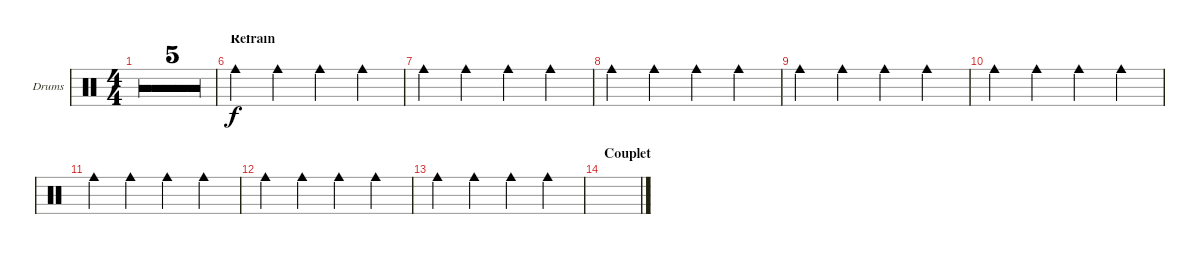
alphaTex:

\defaultSystemsLayout 4
\bracketExtendMode groupsimilarinstruments
\firstSystemTrackNameOrientation horizontal
\otherSystemsTrackNameOrientation horizontal
\track ("Cow Bell" "Drums") {multiBarRest instrument percussion}
\staff {score}
\articulation defaults
\ts (4 4)
\tempo 120
\clef neutral
\ks c
|
|
|
|
|
\section ("" "Refrain")
"Cowbell medium (hit)".4 "Cowbell medium (hit)".4 "Cowbell medium (hit)".4 "Cowbell medium (hit)".4 |
"Cowbell medium (hit)".4 "Cowbell medium (hit)".4 "Cowbell medium (hit)".4 "Cowbell medium (hit)".4 |
"Cowbell medium (hit)".4 "Cowbell medium (hit)".4 "Cowbell medium (hit)".4 "Cowbell medium (hit)".4 |
"Cowbell medium (hit)".4 "Cowbell medium (hit)".4 "Cowbell medium (hit)".4 "Cowbell medium (hit)".4 |
"Cowbell medium (hit)".4 "Cowbell medium (hit)".4 "Cowbell medium (hit)".4 "Cowbell medium (hit)".4 |
"Cowbell medium (hit)".4 "Cowbell medium (hit)".4 "Cowbell medium (hit)".4 "Cowbell medium (hit)".4 |
"Cowbell medium (hit)".4 "Cowbell medium (hit)".4 "Cowbell medium (hit)".4 "Cowbell medium (hit)".4 |
"Cowbell medium (hit)".4 "Cowbell medium (hit)".4 "Cowbell medium (hit)".4 "Cowbell medium (hit)".4 |
\section ("" "Couplet")
